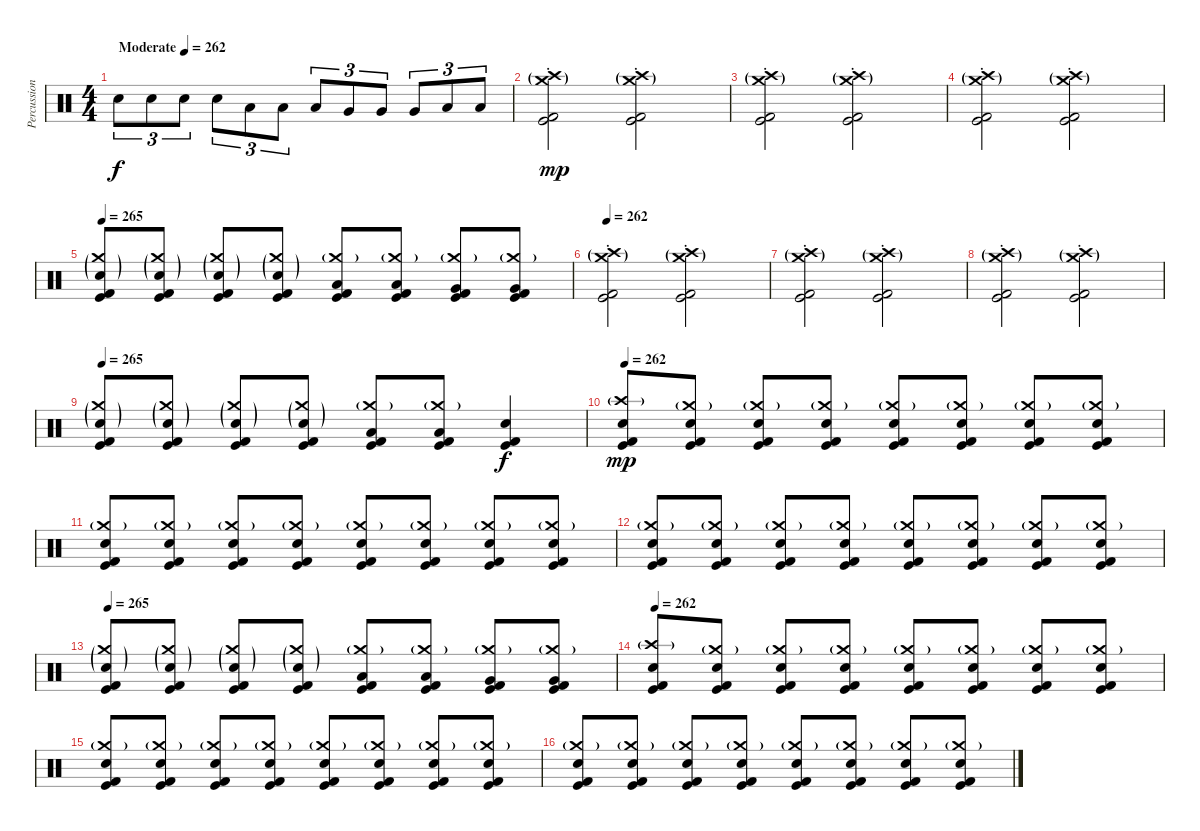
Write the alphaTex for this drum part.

\track ("Percussion" "Percussion") {instrument percussion}
\staff {score}
\articulation defaults
\ts (4 4)
\tempo (262 "Moderate")
\clef neutral
\ks c "Electric Snare (hit)".8{tu (3 2) dy f} "Electric Snare (hit)".8{tu (3 2)} "Electric Snare (hit)".8{tu (3 2)} "Electric Snare (hit)".8{tu (3 2)} "Low Tom (hit)".8{tu (3 2)} "Low Tom (hit)".8{tu (3 2)} "Low Tom (hit)".8{tu (3 2)} "Very Low Tom (hit)".8{tu (3 2)} "Very Low Tom (hit)".8{tu (3 2)} "Very Low Tom (hit)".8{tu (3 2)} "Low Floor Tom (hit)".8{tu (3 2)} "Low Floor Tom (hit)".8{tu (3 2)}
|
("Crash medium (hit)"{g st} "Crash high (hit)"{g st} "Kick (hit)" "Kick (hit) 2").2{dy mp} ("Crash medium (hit)"{g st} "Crash high (hit)"{g st} "Kick (hit)" "Kick (hit) 2").2 |
("Crash medium (hit)"{g st} "Crash high (hit)"{g st} "Kick (hit)" "Kick (hit) 2").2 ("Crash medium (hit)"{g st} "Crash high (hit)"{g st} "Kick (hit)" "Kick (hit) 2").2 |
("Crash medium (hit)"{g st} "Crash high (hit)"{g st} "Kick (hit)" "Kick (hit) 2").2 ("Crash medium (hit)"{g st} "Crash high (hit)"{g st} "Kick (hit)" "Kick (hit) 2").2 |
\tempo 265
("Crash medium (hit)"{g} "Electric Snare (hit)"{g} "Kick (hit)" "Kick (hit) 2").8 ("Crash medium (hit)"{g} "Electric Snare (hit)"{g} "Kick (hit)" "Kick (hit) 2").8 ("Crash medium (hit)"{g} "Electric Snare (hit)"{g} "Kick (hit)" "Kick (hit) 2").8 ("Crash medium (hit)"{g} "Electric Snare (hit)"{g} "Kick (hit)" "Kick (hit) 2").8 ("Crash medium (hit)"{g} "Low Tom (hit)" "Kick (hit)" "Kick (hit) 2").8 ("Crash medium (hit)"{g} "Low Tom (hit)" "Kick (hit)" "Kick (hit) 2").8 ("Crash medium (hit)"{g} "Very Low Tom (hit)" "Kick (hit)" "Kick (hit) 2").8 ("Crash medium (hit)"{g} "Very Low Tom (hit)" "Kick (hit)" "Kick (hit) 2").8 |
\tempo 262
("Crash medium (hit)"{g st} "Crash high (hit)"{g st} "Kick (hit)" "Kick (hit) 2").2 ("Crash medium (hit)"{g st} "Crash high (hit)"{g st} "Kick (hit)" "Kick (hit) 2").2 |
("Crash medium (hit)"{g st} "Crash high (hit)"{g st} "Kick (hit)" "Kick (hit) 2").2 ("Crash medium (hit)"{g st} "Crash high (hit)"{g st} "Kick (hit)" "Kick (hit) 2").2 |
("Crash medium (hit)"{g st} "Crash high (hit)"{g st} "Kick (hit)" "Kick (hit) 2").2 ("Crash medium (hit)"{g st} "Crash high (hit)"{g st} "Kick (hit)" "Kick (hit) 2").2 |
\tempo 265
("Crash medium (hit)"{g} "Electric Snare (hit)"{g} "Kick (hit)" "Kick (hit) 2").8 ("Crash medium (hit)"{g} "Electric Snare (hit)"{g} "Kick (hit)" "Kick (hit) 2").8 ("Crash medium (hit)"{g} "Electric Snare (hit)"{g} "Kick (hit)" "Kick (hit) 2").8 ("Crash medium (hit)"{g} "Electric Snare (hit)"{g} "Kick (hit)" "Kick (hit) 2").8 ("Crash medium (hit)"{g} "Low Tom (hit)" "Kick (hit)" "Kick (hit) 2").8 ("Crash medium (hit)"{g} "Low Tom (hit)" "Kick (hit)" "Kick (hit) 2").8 ("Electric Snare (hit)" "Kick (hit)" "Kick (hit) 2").4{dy f} |
\tempo 262
("Crash high (hit)"{g} "Electric Snare (hit)" "Kick (hit)" "Kick (hit) 2").8{dy mp} ("Crash medium (hit)"{g} "Electric Snare (hit)" "Kick (hit)" "Kick (hit) 2").8 ("Crash medium (hit)"{g} "Electric Snare (hit)" "Kick (hit)" "Kick (hit) 2").8 ("Crash medium (hit)"{g} "Electric Snare (hit)" "Kick (hit)" "Kick (hit) 2").8 ("Crash medium (hit)"{g} "Electric Snare (hit)" "Kick (hit)" "Kick (hit) 2").8 ("Crash medium (hit)"{g} "Electric Snare (hit)" "Kick (hit)" "Kick (hit) 2").8 ("Crash medium (hit)"{g} "Electric Snare (hit)" "Kick (hit)" "Kick (hit) 2").8 ("Crash medium (hit)"{g} "Electric Snare (hit)" "Kick (hit)" "Kick (hit) 2").8 |
("Crash medium (hit)"{g} "Electric Snare (hit)" "Kick (hit)" "Kick (hit) 2").8 ("Crash medium (hit)"{g} "Electric Snare (hit)" "Kick (hit)" "Kick (hit) 2").8 ("Crash medium (hit)"{g} "Electric Snare (hit)" "Kick (hit)" "Kick (hit) 2").8 ("Crash medium (hit)"{g} "Electric Snare (hit)" "Kick (hit)" "Kick (hit) 2").8 ("Crash medium (hit)"{g} "Electric Snare (hit)" "Kick (hit)" "Kick (hit) 2").8 ("Crash medium (hit)"{g} "Electric Snare (hit)" "Kick (hit)" "Kick (hit) 2").8 ("Crash medium (hit)"{g} "Electric Snare (hit)" "Kick (hit)" "Kick (hit) 2").8 ("Crash medium (hit)"{g} "Electric Snare (hit)" "Kick (hit)" "Kick (hit) 2").8 |
("Crash medium (hit)"{g} "Electric Snare (hit)" "Kick (hit)" "Kick (hit) 2").8 ("Crash medium (hit)"{g} "Electric Snare (hit)" "Kick (hit)" "Kick (hit) 2").8 ("Crash medium (hit)"{g} "Electric Snare (hit)" "Kick (hit)" "Kick (hit) 2").8 ("Crash medium (hit)"{g} "Electric Snare (hit)" "Kick (hit)" "Kick (hit) 2").8 ("Crash medium (hit)"{g} "Electric Snare (hit)" "Kick (hit)" "Kick (hit) 2").8 ("Crash medium (hit)"{g} "Electric Snare (hit)" "Kick (hit)" "Kick (hit) 2").8 ("Crash medium (hit)"{g} "Electric Snare (hit)" "Kick (hit)" "Kick (hit) 2").8 ("Crash medium (hit)"{g} "Electric Snare (hit)" "Kick (hit)" "Kick (hit) 2").8 |
\tempo 265
("Crash medium (hit)"{g} "Electric Snare (hit)"{g} "Kick (hit)" "Kick (hit) 2").8 ("Crash medium (hit)"{g} "Electric Snare (hit)"{g} "Kick (hit)" "Kick (hit) 2").8 ("Crash medium (hit)"{g} "Electric Snare (hit)"{g} "Kick (hit)" "Kick (hit) 2").8 ("Crash medium (hit)"{g} "Electric Snare (hit)"{g} "Kick (hit)" "Kick (hit) 2").8 ("Crash medium (hit)"{g} "Low Tom (hit)" "Kick (hit)" "Kick (hit) 2").8 ("Crash medium (hit)"{g} "Low Tom (hit)" "Kick (hit)" "Kick (hit) 2").8 ("Crash medium (hit)"{g} "Very Low Tom (hit)" "Kick (hit)" "Kick (hit) 2").8 ("Crash medium (hit)"{g} "Very Low Tom (hit)" "Kick (hit)" "Kick (hit) 2").8 |
\tempo 262
("Crash high (hit)"{g} "Electric Snare (hit)" "Kick (hit)" "Kick (hit) 2").8 ("Crash medium (hit)"{g} "Electric Snare (hit)" "Kick (hit)" "Kick (hit) 2").8 ("Crash medium (hit)"{g} "Electric Snare (hit)" "Kick (hit)" "Kick (hit) 2").8 ("Crash medium (hit)"{g} "Electric Snare (hit)" "Kick (hit)" "Kick (hit) 2").8 ("Crash medium (hit)"{g} "Electric Snare (hit)" "Kick (hit)" "Kick (hit) 2").8 ("Crash medium (hit)"{g} "Electric Snare (hit)" "Kick (hit)" "Kick (hit) 2").8 ("Crash medium (hit)"{g} "Electric Snare (hit)" "Kick (hit)" "Kick (hit) 2").8 ("Crash medium (hit)"{g} "Electric Snare (hit)" "Kick (hit)" "Kick (hit) 2").8 |
("Crash medium (hit)"{g} "Electric Snare (hit)" "Kick (hit)" "Kick (hit) 2").8 ("Crash medium (hit)"{g} "Electric Snare (hit)" "Kick (hit)" "Kick (hit) 2").8 ("Crash medium (hit)"{g} "Electric Snare (hit)" "Kick (hit)" "Kick (hit) 2").8 ("Crash medium (hit)"{g} "Electric Snare (hit)" "Kick (hit)" "Kick (hit) 2").8 ("Crash medium (hit)"{g} "Electric Snare (hit)" "Kick (hit)" "Kick (hit) 2").8 ("Crash medium (hit)"{g} "Electric Snare (hit)" "Kick (hit)" "Kick (hit) 2").8 ("Crash medium (hit)"{g} "Electric Snare (hit)" "Kick (hit)" "Kick (hit) 2").8 ("Crash medium (hit)"{g} "Electric Snare (hit)" "Kick (hit)" "Kick (hit) 2").8 |
("Crash medium (hit)"{g} "Electric Snare (hit)" "Kick (hit)" "Kick (hit) 2").8 ("Crash medium (hit)"{g} "Electric Snare (hit)" "Kick (hit)" "Kick (hit) 2").8 ("Crash medium (hit)"{g} "Electric Snare (hit)" "Kick (hit)" "Kick (hit) 2").8 ("Crash medium (hit)"{g} "Electric Snare (hit)" "Kick (hit)" "Kick (hit) 2").8 ("Crash medium (hit)"{g} "Electric Snare (hit)" "Kick (hit)" "Kick (hit) 2").8 ("Crash medium (hit)"{g} "Electric Snare (hit)" "Kick (hit)" "Kick (hit) 2").8 ("Crash medium (hit)"{g} "Electric Snare (hit)" "Kick (hit)" "Kick (hit) 2").8 ("Crash medium (hit)"{g} "Electric Snare (hit)" "Kick (hit)" "Kick (hit) 2").8
